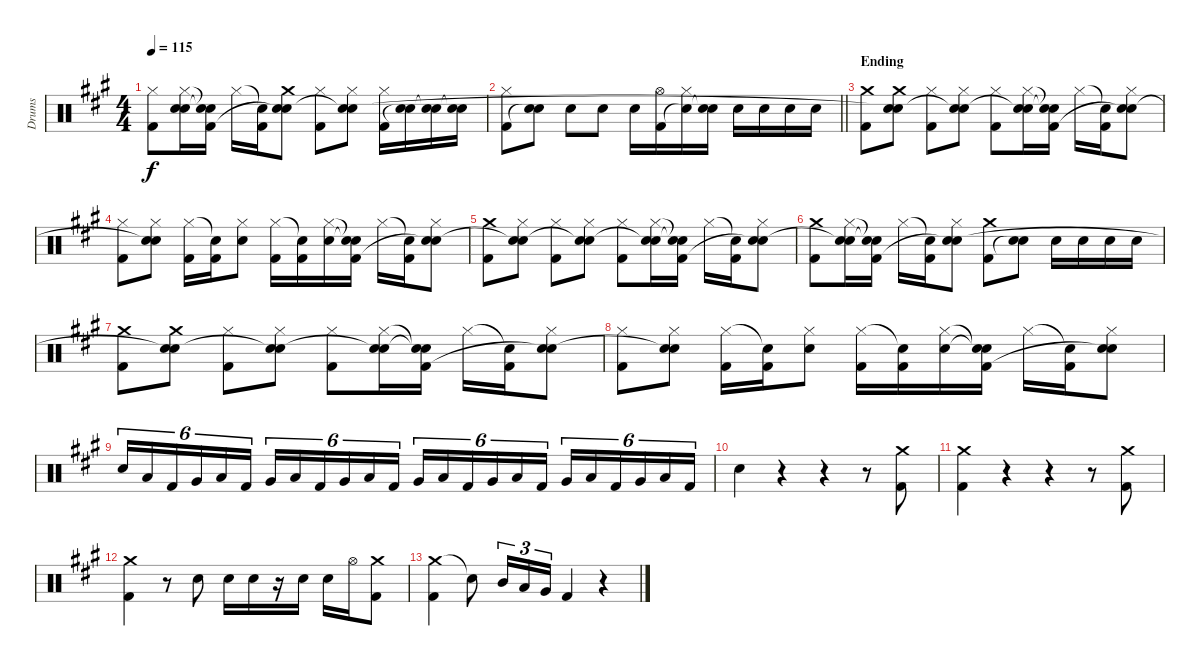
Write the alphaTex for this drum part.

\track ("Drums" "Drums") {instrument percussion}
\staff {score}
\articulation defaults
\ts (4 4)
\tempo 115
\clef neutral
\ks a
("Hi-Hat (closed)" "Kick (hit) 2").8{dy f} ("Hi-Hat (closed)" "Electric Snare (hit)" "Snare (hit)"{t}).16 ("Snare (hit)"{t} "Snare (hit)"{t} "Kick (hit) 2").16 "Hi-Hat (closed)".16 ("Snare (hit)"{t} "Kick (hit) 2").16 ("Crash medium (hit)" "Electric Snare (hit)" "Snare (hit)"{t}).8 ("Hi-Hat (closed)" "Kick (hit) 2").8 ("Hi-Hat (closed)" "Electric Snare (hit)" "Snare (hit)"{t}).8 ("Hi-Hat (closed)" "Kick (hit) 2").16 ("Electric Snare (hit)" "Snare (hit)"{t}).16 ("Electric Snare (hit)" "Snare (hit)"{t}).16 ("Electric Snare (hit)" "Snare (hit)"{t}).16 |
\barLineRight lightlight
("Hi-Hat (closed)" "Kick (hit) 2").8 ("Electric Snare (hit)" "Snare (hit)"{t}).8 "Electric Snare (hit)".8 "Electric Snare (hit)".8 "Electric Snare (hit)".16 ("Hi-Hat (open)" "Kick (hit) 2").16 ("Hi-Hat (closed)" "Snare (hit)"{t}).16 ("Electric Snare (hit)" "Snare (hit)"{t}).16 "Electric Snare (hit)".16 "Electric Snare (hit)".16 "Electric Snare (hit)".16 "Electric Snare (hit)".16 |
\section ("" "Ending")
("Crash medium (hit)" "Kick (hit) 2").8 ("Crash medium (hit)" "Electric Snare (hit)" "Snare (hit)"{t}).8 ("Hi-Hat (closed)" "Kick (hit) 2").8 ("Hi-Hat (closed)" "Electric Snare (hit)" "Snare (hit)"{t}).8 ("Hi-Hat (closed)" "Kick (hit) 2").8 ("Hi-Hat (closed)" "Electric Snare (hit)" "Snare (hit)"{t}).16 ("Snare (hit)"{t} "Snare (hit)"{t} "Kick (hit) 2").16 "Hi-Hat (closed)".16 ("Snare (hit)"{t} "Kick (hit) 2").16 ("Hi-Hat (closed)" "Electric Snare (hit)" "Snare (hit)"{t}).8 |
("Hi-Hat (closed)" "Kick (hit) 2").8 ("Hi-Hat (closed)" "Electric Snare (hit)" "Snare (hit)"{t}).8 ("Hi-Hat (closed)" "Kick (hit) 2").16 ("Snare (hit)"{t} "Kick (hit) 2").16 ("Hi-Hat (closed)" "Electric Snare (hit)").8 ("Hi-Hat (closed)" "Kick (hit) 2").16 ("Snare (hit)"{t} "Kick (hit) 2").16 ("Hi-Hat (closed)" "Electric Snare (hit)").16 ("Snare (hit)"{t} "Snare (hit)"{t} "Kick (hit) 2").16 "Hi-Hat (closed)".16 ("Snare (hit)"{t} "Kick (hit) 2").16 ("Hi-Hat (closed)" "Electric Snare (hit)" "Snare (hit)"{t}).8 |
("Crash medium (hit)" "Kick (hit) 2").8 ("Hi-Hat (closed)" "Electric Snare (hit)" "Snare (hit)"{t}).8 ("Hi-Hat (closed)" "Kick (hit) 2").8 ("Hi-Hat (closed)" "Electric Snare (hit)" "Snare (hit)"{t}).8 ("Hi-Hat (closed)" "Kick (hit) 2").8 ("Hi-Hat (closed)" "Electric Snare (hit)" "Snare (hit)"{t}).16 ("Snare (hit)"{t} "Snare (hit)"{t} "Kick (hit) 2").16 "Hi-Hat (closed)".16 ("Snare (hit)"{t} "Kick (hit) 2").16 ("Hi-Hat (closed)" "Electric Snare (hit)" "Snare (hit)"{t}).8 |
("Crash medium (hit)" "Kick (hit) 2").8 ("Hi-Hat (closed)" "Electric Snare (hit)" "Snare (hit)"{t}).16 ("Snare (hit)"{t} "Snare (hit)"{t} "Kick (hit) 2").16 "Hi-Hat (closed)".16 ("Snare (hit)"{t} "Kick (hit) 2").16 ("Hi-Hat (closed)" "Electric Snare (hit)" "Snare (hit)"{t}).8 ("Crash medium (hit)" "Kick (hit) 2").8 ("Electric Snare (hit)" "Snare (hit)"{t}).8 "Electric Snare (hit)".16 "Electric Snare (hit)".16 "Electric Snare (hit)".16 "Electric Snare (hit)".16 |
("Crash medium (hit)" "Kick (hit) 2").8 ("Crash medium (hit)" "Electric Snare (hit)" "Snare (hit)"{t}).8 ("Hi-Hat (closed)" "Kick (hit) 2").8 ("Hi-Hat (closed)" "Electric Snare (hit)" "Snare (hit)"{t}).8 ("Hi-Hat (closed)" "Kick (hit) 2").8 ("Hi-Hat (closed)" "Electric Snare (hit)" "Snare (hit)"{t}).16 ("Snare (hit)"{t} "Snare (hit)"{t} "Kick (hit) 2").16 "Hi-Hat (closed)".16 ("Snare (hit)"{t} "Kick (hit) 2").16 ("Hi-Hat (closed)" "Electric Snare (hit)" "Snare (hit)"{t}).8 |
("Hi-Hat (closed)" "Kick (hit) 2").8 ("Hi-Hat (closed)" "Electric Snare (hit)" "Snare (hit)"{t}).8 ("Hi-Hat (closed)" "Kick (hit) 2").16 ("Snare (hit)"{t} "Kick (hit) 2").16 ("Hi-Hat (closed)" "Electric Snare (hit)").8 ("Hi-Hat (closed)" "Kick (hit) 2").16 ("Snare (hit)"{t} "Kick (hit) 2").16 ("Hi-Hat (closed)" "Electric Snare (hit)").16 ("Snare (hit)"{t} "Snare (hit)"{t} "Kick (hit) 2").16 "Hi-Hat (closed)".16 ("Snare (hit)"{t} "Kick (hit) 2").16 ("Hi-Hat (closed)" "Electric Snare (hit)" "Snare (hit)"{t}).8 |
"Electric Snare (hit)".16{tu (6 4)} "Low Floor Tom (hit)".16{tu (6 4)} "Kick (hit) 2".16{tu (6 4)} "Very Low Tom (hit)".16{tu (6 4)} "Low Floor Tom (hit)".16{tu (6 4)} "Kick (hit) 2".16{tu (6 4)} "Very Low Tom (hit)".16{tu (6 4)} "Low Floor Tom (hit)".16{tu (6 4)} "Kick (hit) 2".16{tu (6 4)} "Very Low Tom (hit)".16{tu (6 4)} "Low Floor Tom (hit)".16{tu (6 4)} "Kick (hit) 2".16{tu (6 4)} "Very Low Tom (hit)".16{tu (6 4)} "Low Floor Tom (hit)".16{tu (6 4)} "Kick (hit) 2".16{tu (6 4)} "Very Low Tom (hit)".16{tu (6 4)} "Low Floor Tom (hit)".16{tu (6 4)} "Kick (hit) 2".16{tu (6 4)} "Very Low Tom (hit)".16{tu (6 4)} "Low Floor Tom (hit)".16{tu (6 4)} "Kick (hit) 2".16{tu (6 4)} "Very Low Tom (hit)".16{tu (6 4)} "Low Floor Tom (hit)".16{tu (6 4)} "Kick (hit) 2".16{tu (6 4)} |
"Electric Snare (hit)".4 r.4 r.4 r.8 ("Crash medium (hit)" "Kick (hit) 2").8 |
("Crash medium (hit)" "Kick (hit) 2").4 r.4 r.4 r.8 ("Crash medium (hit)" "Kick (hit) 2").8 |
("Crash medium (hit)" "Kick (hit) 2").4 r.8 "Electric Snare (hit)".8 "Electric Snare (hit)".16 "Electric Snare (hit)".16 r.16 "Electric Snare (hit)".16 "Electric Snare (hit)".16 "Hi-Hat (open)".16 ("Crash medium (hit)" "Kick (hit) 2").8 |
("Crash medium (hit)" "Kick (hit) 2").4 "Snare (hit)"{t}.8 "Mid Tom (hit)".16{tu (3 2)} "Low Tom (hit)".16{tu (3 2)} "Very Low Tom (hit)".16{tu (3 2)} "Kick (hit) 2".4 r.4
